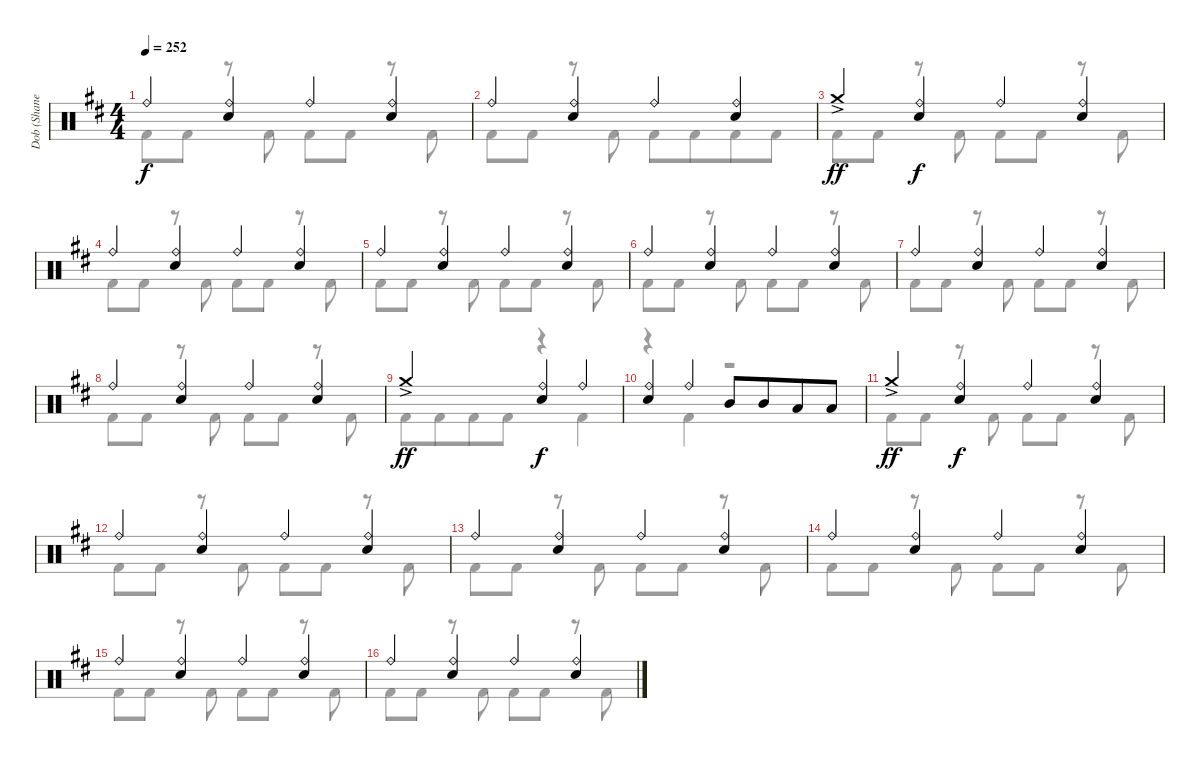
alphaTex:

\track ("Dob (Shane Gaalaas)" "Dob (Shane") {instrument percussion}
\staff {score}
\articulation defaults
\voice
\ts (4 4)
\tempo 252
\clef neutral
\ks d "Ride (bell)".4{dy f}
("Ride (bell)" "Electric Snare (hit)").4 "Ride (bell)".4 ("Ride (bell)" "Electric Snare (hit)").4 |
"Ride (bell)".4 ("Ride (bell)" "Electric Snare (hit)").4 "Ride (bell)".4 ("Ride (bell)" "Electric Snare (hit)").4 |
"Crash medium (hit)"{ac}.4{dy ff} ("Ride (bell)" "Electric Snare (hit)").4{dy f} "Ride (bell)".4 ("Ride (bell)" "Electric Snare (hit)").4 |
"Ride (bell)".4 ("Ride (bell)" "Electric Snare (hit)").4 "Ride (bell)".4 ("Ride (bell)" "Electric Snare (hit)").4 |
"Ride (bell)".4 ("Ride (bell)" "Electric Snare (hit)").4 "Ride (bell)".4 ("Ride (bell)" "Electric Snare (hit)").4 |
"Ride (bell)".4 ("Ride (bell)" "Electric Snare (hit)").4 "Ride (bell)".4 ("Ride (bell)" "Electric Snare (hit)").4 |
"Ride (bell)".4 ("Ride (bell)" "Electric Snare (hit)").4 "Ride (bell)".4 ("Ride (bell)" "Electric Snare (hit)").4 |
"Ride (bell)".4 ("Ride (bell)" "Electric Snare (hit)").4 "Ride (bell)".4 ("Ride (bell)" "Electric Snare (hit)").4 |
"Crash medium (hit)"{ac}.2{dy ff} ("Ride (bell)" "Electric Snare (hit)").4{dy f} "Ride (bell)".4 |
("Ride (bell)" "Electric Snare (hit)").4 "Ride (bell)".4 "Mid Tom (hit)".8 "Mid Tom (hit)".8{beam merge} "Low Tom (hit)".8 "Low Tom (hit)".8 |
"Crash medium (hit)"{ac}.4{dy ff} ("Ride (bell)" "Electric Snare (hit)").4{dy f} "Ride (bell)".4 ("Ride (bell)" "Electric Snare (hit)").4 |
"Ride (bell)".4 ("Ride (bell)" "Electric Snare (hit)").4 "Ride (bell)".4 ("Ride (bell)" "Electric Snare (hit)").4 |
"Ride (bell)".4 ("Ride (bell)" "Electric Snare (hit)").4 "Ride (bell)".4 ("Ride (bell)" "Electric Snare (hit)").4 |
"Ride (bell)".4 ("Ride (bell)" "Electric Snare (hit)").4 "Ride (bell)".4 ("Ride (bell)" "Electric Snare (hit)").4 |
"Ride (bell)".4 ("Ride (bell)" "Electric Snare (hit)").4 "Ride (bell)".4 ("Ride (bell)" "Electric Snare (hit)").4 |
"Ride (bell)".4 ("Ride (bell)" "Electric Snare (hit)").4 "Ride (bell)".4 ("Ride (bell)" "Electric Snare (hit)").4
\voice
\clef neutral
\ottava regular
\simile none
\ks d "Kick (hit) 2".8{dy f} "Kick (hit) 2".8
r.8 "Kick (hit) 2".8 "Kick (hit) 2".8 "Kick (hit) 2".8 r.8 "Kick (hit) 2".8 |
"Kick (hit) 2".8 "Kick (hit) 2".8 r.8 "Kick (hit) 2".8 "Kick (hit) 2".8 "Kick (hit) 2".8{beam merge} "Kick (hit) 2".8 "Kick (hit) 2".8 |
"Kick (hit) 2".8 "Kick (hit) 2".8 r.8 "Kick (hit) 2".8 "Kick (hit) 2".8 "Kick (hit) 2".8 r.8 "Kick (hit) 2".8 |
"Kick (hit) 2".8 "Kick (hit) 2".8 r.8 "Kick (hit) 2".8 "Kick (hit) 2".8 "Kick (hit) 2".8 r.8 "Kick (hit) 2".8 |
"Kick (hit) 2".8 "Kick (hit) 2".8 r.8 "Kick (hit) 2".8 "Kick (hit) 2".8 "Kick (hit) 2".8 r.8 "Kick (hit) 2".8 |
"Kick (hit) 2".8 "Kick (hit) 2".8 r.8 "Kick (hit) 2".8 "Kick (hit) 2".8 "Kick (hit) 2".8 r.8 "Kick (hit) 2".8 |
"Kick (hit) 2".8 "Kick (hit) 2".8 r.8 "Kick (hit) 2".8 "Kick (hit) 2".8 "Kick (hit) 2".8 r.8 "Kick (hit) 2".8 |
"Kick (hit) 2".8 "Kick (hit) 2".8 r.8 "Kick (hit) 2".8 "Kick (hit) 2".8 "Kick (hit) 2".8 r.8 "Kick (hit) 2".8 |
"Kick (hit) 2".8 "Kick (hit) 2".8{beam merge} "Kick (hit) 2".8 "Kick (hit) 2".8 r.4 "Kick (hit) 2".4 |
r.4 "Kick (hit) 2".4 r.2 |
"Kick (hit) 2".8 "Kick (hit) 2".8 r.8 "Kick (hit) 2".8 "Kick (hit) 2".8 "Kick (hit) 2".8 r.8 "Kick (hit) 2".8 |
"Kick (hit) 2".8 "Kick (hit) 2".8 r.8 "Kick (hit) 2".8 "Kick (hit) 2".8 "Kick (hit) 2".8 r.8 "Kick (hit) 2".8 |
"Kick (hit) 2".8 "Kick (hit) 2".8 r.8 "Kick (hit) 2".8 "Kick (hit) 2".8 "Kick (hit) 2".8 r.8 "Kick (hit) 2".8 |
"Kick (hit) 2".8 "Kick (hit) 2".8 r.8 "Kick (hit) 2".8 "Kick (hit) 2".8 "Kick (hit) 2".8 r.8 "Kick (hit) 2".8 |
"Kick (hit) 2".8 "Kick (hit) 2".8 r.8 "Kick (hit) 2".8 "Kick (hit) 2".8 "Kick (hit) 2".8 r.8 "Kick (hit) 2".8 |
"Kick (hit) 2".8 "Kick (hit) 2".8 r.8 "Kick (hit) 2".8 "Kick (hit) 2".8 "Kick (hit) 2".8 r.8 "Kick (hit) 2".8
